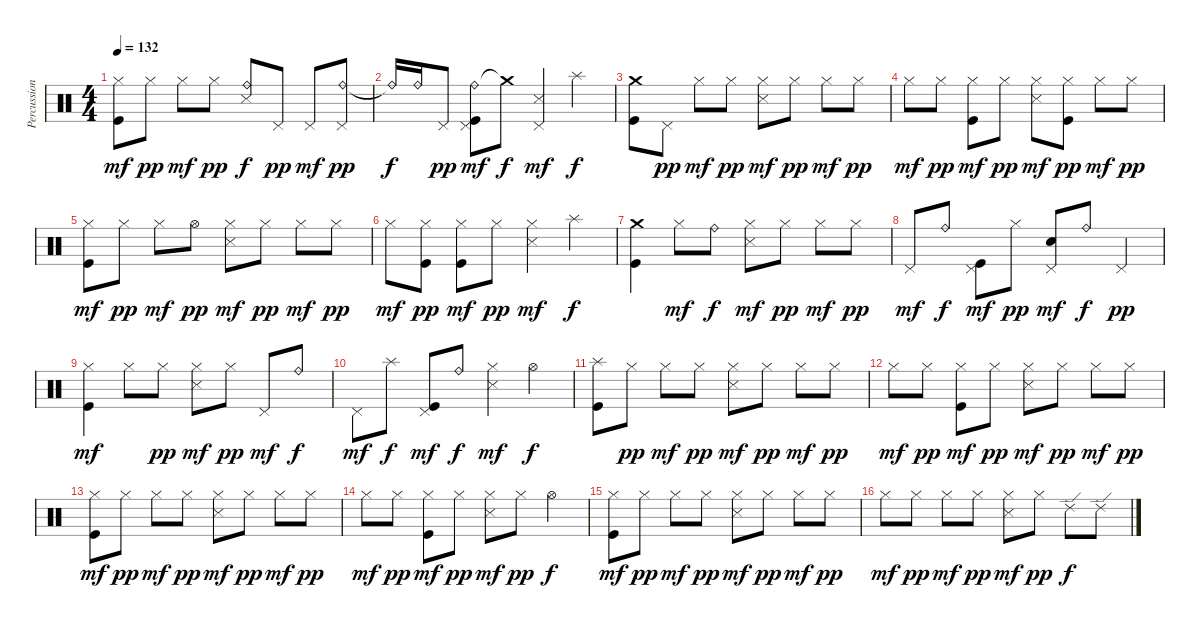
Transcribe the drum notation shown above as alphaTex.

\track ("Percussion" "Percussion") {instrument percussion}
\staff {score}
\articulation defaults
\ts (4 4)
\tempo 132
\clef neutral
\ks c
("Hi-Hat (closed)" "Kick (hit)").8{dy mf} "Hi-Hat (closed)".8{dy pp} "Hi-Hat (closed)".8{dy mf} "Hi-Hat (closed)".8{dy pp} ("Ride (bell)" "Snare (side stick) 3").8{dy f} "Pedal Hi-Hat (hit)".8{dy pp} "Pedal Hi-Hat (hit)".8{dy mf} ("Ride (bell)" "Pedal Hi-Hat (hit)").8{dy pp} |
"Ride (bell)"{t}.16{dy f} "Ride (bell)".16 "Pedal Hi-Hat (hit)".8{dy pp} ("Ride (bell)" "Pedal Hi-Hat (hit)" "Kick (hit)").8{dy mf} "Crash medium (hit)"{t}.8{dy f} ("Pedal Hi-Hat (hit)" "Snare (side stick) 3").4{dy mf} "Splash (hit)".4{dy f} |
("Crash medium (hit)" "Kick (hit)").8 "Pedal Hi-Hat (hit)".8{dy pp} "Hi-Hat (closed)".8{dy mf} "Hi-Hat (closed)".8{dy pp} ("Hi-Hat (closed)" "Snare (side stick) 3").8{dy mf} "Hi-Hat (closed)".8{dy pp} "Hi-Hat (closed)".8{dy mf} "Hi-Hat (closed)".8{dy pp} |
"Hi-Hat (closed)".8{dy mf} "Hi-Hat (closed)".8{dy pp} ("Hi-Hat (closed)" "Kick (hit)").8{dy mf} "Hi-Hat (closed)".8{dy pp} ("Hi-Hat (closed)" "Snare (side stick) 3").8{dy mf} ("Hi-Hat (closed)" "Kick (hit)").8{dy pp} "Hi-Hat (closed)".8{dy mf} "Hi-Hat (closed)".8{dy pp} |
("Hi-Hat (closed)" "Kick (hit)").8{dy mf} "Hi-Hat (closed)".8{dy pp} "Hi-Hat (closed)".8{dy mf} "Hi-Hat (open)".8{dy pp} ("Hi-Hat (closed)" "Snare (side stick) 3").8{dy mf} "Hi-Hat (closed)".8{dy pp} "Hi-Hat (closed)".8{dy mf} "Hi-Hat (closed)".8{dy pp} |
"Hi-Hat (closed)".8{dy mf} ("Hi-Hat (closed)" "Kick (hit)").8{dy pp} ("Hi-Hat (closed)" "Kick (hit)").8{dy mf} "Hi-Hat (closed)".8{dy pp} ("Hi-Hat (closed)" "Snare (side stick) 3").4{dy mf} "Splash (hit)".4{dy f} |
("Crash medium (hit)" "Kick (hit)").4 "Hi-Hat (closed)".8{dy mf} "Ride (bell)".8{dy f} ("Hi-Hat (closed)" "Snare (side stick) 3").8{dy mf} "Hi-Hat (closed)".8{dy pp} "Hi-Hat (closed)".8{dy mf} "Hi-Hat (closed)".8{dy pp} |
"Pedal Hi-Hat (hit)".8{dy mf} "Ride (bell)".8{dy f} ("Pedal Hi-Hat (hit)" "Kick (hit)").8{dy mf} "Hi-Hat (closed)".8{dy pp} ("Pedal Hi-Hat (hit)" "Snare (hit) 2").8{dy mf} "Ride (bell)".8{dy f} "Pedal Hi-Hat (hit)".4{dy pp} |
("Hi-Hat (closed)" "Kick (hit)").4{dy mf} "Hi-Hat (closed)".8 "Hi-Hat (closed)".8{dy pp} ("Hi-Hat (closed)" "Snare (side stick) 3").8{dy mf} "Hi-Hat (closed)".8{dy pp} "Pedal Hi-Hat (hit)".8{dy mf} "Ride (bell)".8{dy f} |
"Pedal Hi-Hat (hit)".8{dy mf} "Splash (hit)".8{dy f} ("Pedal Hi-Hat (hit)" "Kick (hit)").8{dy mf} "Ride (bell)".8{dy f} ("Hi-Hat (closed)" "Snare (side stick) 3").4{dy mf} "Hi-Hat (open)".4{dy f} |
("Splash (hit)" "Kick (hit)").8 "Hi-Hat (closed)".8{dy pp} "Hi-Hat (closed)".8{dy mf} "Hi-Hat (closed)".8{dy pp} ("Hi-Hat (closed)" "Snare (side stick) 3").8{dy mf} "Hi-Hat (closed)".8{dy pp} "Hi-Hat (closed)".8{dy mf} "Hi-Hat (closed)".8{dy pp} |
"Hi-Hat (closed)".8{dy mf} "Hi-Hat (closed)".8{dy pp} ("Hi-Hat (closed)" "Kick (hit)").8{dy mf} "Hi-Hat (closed)".8{dy pp} ("Hi-Hat (closed)" "Snare (side stick) 3").8{dy mf} "Hi-Hat (closed)".8{dy pp} "Hi-Hat (closed)".8{dy mf} "Hi-Hat (closed)".8{dy pp} |
("Hi-Hat (closed)" "Kick (hit)").8{dy mf} "Hi-Hat (closed)".8{dy pp} "Hi-Hat (closed)".8{dy mf} "Hi-Hat (closed)".8{dy pp} ("Hi-Hat (closed)" "Snare (side stick) 3").8{dy mf} "Hi-Hat (closed)".8{dy pp} "Hi-Hat (closed)".8{dy mf} "Hi-Hat (closed)".8{dy pp} |
"Hi-Hat (closed)".8{dy mf} "Hi-Hat (closed)".8{dy pp} ("Hi-Hat (closed)" "Kick (hit)").8{dy mf} "Hi-Hat (closed)".8{dy pp} ("Hi-Hat (closed)" "Snare (side stick) 3").8{dy mf} "Hi-Hat (closed)".8{dy pp} "Hi-Hat (open)".4{dy f} |
("Hi-Hat (closed)" "Kick (hit)").8{dy mf} "Hi-Hat (closed)".8{dy pp} "Hi-Hat (closed)".8{dy mf} "Hi-Hat (closed)".8{dy pp} ("Hi-Hat (closed)" "Snare (side stick) 3").8{dy mf} "Hi-Hat (closed)".8{dy pp} "Hi-Hat (closed)".8{dy mf} "Hi-Hat (closed)".8{dy pp} |
"Hi-Hat (closed)".8{dy mf} "Hi-Hat (closed)".8{dy pp} "Hi-Hat (closed)".8{dy mf} "Hi-Hat (closed)".8{dy pp} ("Hi-Hat (closed)" "Snare (side stick) 3").8{dy mf} "Hi-Hat (closed)".8{dy pp} "Ride (edge) 2".8{dy f} "Ride (edge) 2".8
